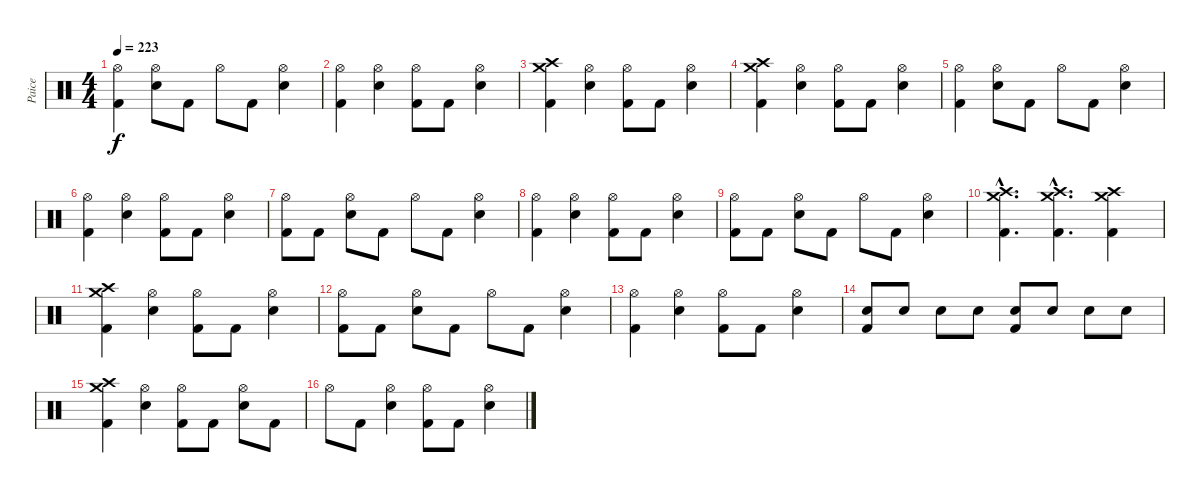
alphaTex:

\track ("Paice" "Paice") {instrument percussion}
\staff {score}
\articulation defaults
\ts (4 4)
\tempo 223
\clef neutral
\ks c
("Hi-Hat (open)" "Kick (hit) 2").4{dy f} ("Hi-Hat (open)" "Electric Snare (hit)").8 "Kick (hit) 2".8 "Hi-Hat (open)".8 "Kick (hit) 2".8 ("Hi-Hat (open)" "Electric Snare (hit)").4 |
("Hi-Hat (open)" "Kick (hit) 2").4 ("Hi-Hat (open)" "Electric Snare (hit)").4 ("Hi-Hat (open)" "Kick (hit) 2").8 "Kick (hit) 2".8 ("Hi-Hat (open)" "Electric Snare (hit)").4 |
("Crash high (hit)" "Crash medium (hit)" "Kick (hit) 2").4 ("Hi-Hat (open)" "Electric Snare (hit)").4 ("Hi-Hat (open)" "Kick (hit) 2").8 "Kick (hit) 2".8 ("Hi-Hat (open)" "Electric Snare (hit)").4 |
("Crash high (hit)" "Crash medium (hit)" "Kick (hit) 2").4 ("Hi-Hat (open)" "Electric Snare (hit)").4 ("Hi-Hat (open)" "Kick (hit) 2").8 "Kick (hit) 2".8 ("Hi-Hat (open)" "Electric Snare (hit)").4 |
("Hi-Hat (open)" "Kick (hit) 2").4 ("Hi-Hat (open)" "Electric Snare (hit)").8 "Kick (hit) 2".8 "Hi-Hat (open)".8 "Kick (hit) 2".8 ("Hi-Hat (open)" "Electric Snare (hit)").4 |
("Hi-Hat (open)" "Kick (hit) 2").4 ("Hi-Hat (open)" "Electric Snare (hit)").4 ("Hi-Hat (open)" "Kick (hit) 2").8 "Kick (hit) 2".8 ("Hi-Hat (open)" "Electric Snare (hit)").4 |
("Hi-Hat (open)" "Kick (hit) 2").8 "Kick (hit) 2".8 ("Hi-Hat (open)" "Electric Snare (hit)").8 "Kick (hit) 2".8 "Hi-Hat (open)".8 "Kick (hit) 2".8 ("Hi-Hat (open)" "Electric Snare (hit)").4 |
("Hi-Hat (open)" "Kick (hit) 2").4 ("Hi-Hat (open)" "Electric Snare (hit)").4 ("Hi-Hat (open)" "Kick (hit) 2").8 "Kick (hit) 2".8 ("Hi-Hat (open)" "Electric Snare (hit)").4 |
("Hi-Hat (open)" "Kick (hit) 2").8 "Kick (hit) 2".8 ("Hi-Hat (open)" "Electric Snare (hit)").8 "Kick (hit) 2".8 "Hi-Hat (open)".8 "Kick (hit) 2".8 ("Hi-Hat (open)" "Electric Snare (hit)").4 |
("Crash high (hit)"{hac} "Crash medium (hit)"{hac} "Kick (hit) 2"{hac}).4{d} ("Crash high (hit)"{hac} "Crash medium (hit)"{hac} "Kick (hit) 2"{hac}).4{d} ("Crash high (hit)" "Crash medium (hit)" "Kick (hit) 2").4 |
("Crash high (hit)" "Crash medium (hit)" "Kick (hit) 2").4 ("Hi-Hat (open)" "Electric Snare (hit)").4 ("Hi-Hat (open)" "Kick (hit) 2").8 "Kick (hit) 2".8 ("Hi-Hat (open)" "Electric Snare (hit)").4 |
("Hi-Hat (open)" "Kick (hit) 2").8 "Kick (hit) 2".8 ("Hi-Hat (open)" "Electric Snare (hit)").8 "Kick (hit) 2".8 "Hi-Hat (open)".8 "Kick (hit) 2".8 ("Hi-Hat (open)" "Electric Snare (hit)").4 |
("Hi-Hat (open)" "Kick (hit) 2").4 ("Hi-Hat (open)" "Electric Snare (hit)").4 ("Hi-Hat (open)" "Kick (hit) 2").8 "Kick (hit) 2".8 ("Hi-Hat (open)" "Electric Snare (hit)").4 |
("Electric Snare (hit)" "Kick (hit) 2").8 "Electric Snare (hit)".8 "Electric Snare (hit)".8 "Electric Snare (hit)".8 ("Electric Snare (hit)" "Kick (hit) 2").8 "Electric Snare (hit)".8 "Electric Snare (hit)".8 "Electric Snare (hit)".8 |
("Crash high (hit)" "Crash medium (hit)" "Kick (hit) 2").4 ("Hi-Hat (open)" "Electric Snare (hit)").4 ("Hi-Hat (open)" "Kick (hit) 2").8 "Kick (hit) 2".8 ("Hi-Hat (open)" "Electric Snare (hit)").8 "Kick (hit) 2".8 |
"Hi-Hat (open)".8 "Kick (hit) 2".8 ("Hi-Hat (open)" "Electric Snare (hit)").4 ("Hi-Hat (open)" "Kick (hit) 2").8 "Kick (hit) 2".8 ("Hi-Hat (open)" "Electric Snare (hit)").4
